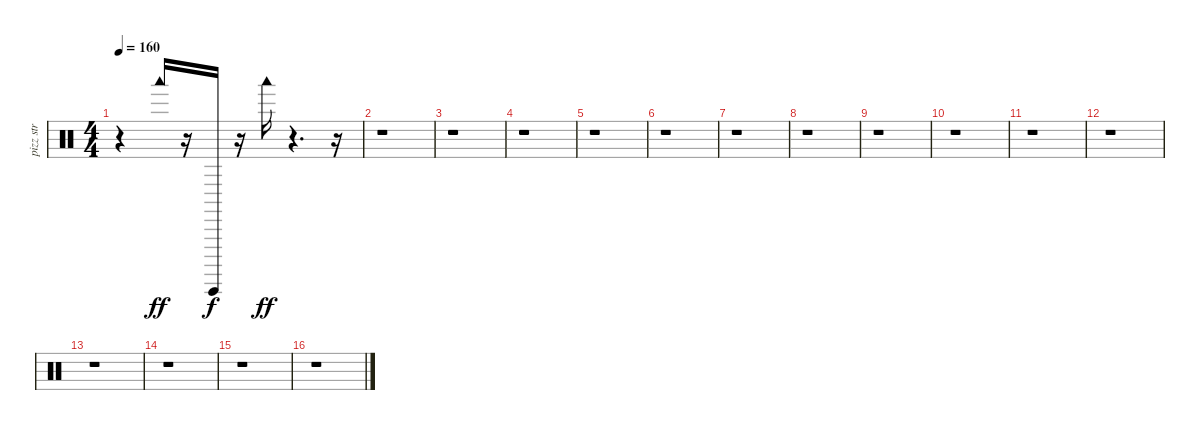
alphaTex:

\track ("pizz str" "pizz str") {instrument percussion}
\staff {score}
\articulation defaults
\ts (4 4)
\tempo 160
\clef neutral
\ks c
r.4{dy ff} "Woodblock low (hit)".16 r.16 "Guiro (hit)".16{dy f} r.16 "Woodblock low (hit)".16{dy ff} r.4{d} r.16 |
r.1 |
r.1 |
r.1 |
r.1 |
r.1 |
r.1 |
r.1 |
r.1 |
r.1 |
r.1 |
r.1 |
r.1 |
r.1 |
r.1 |
r.1
